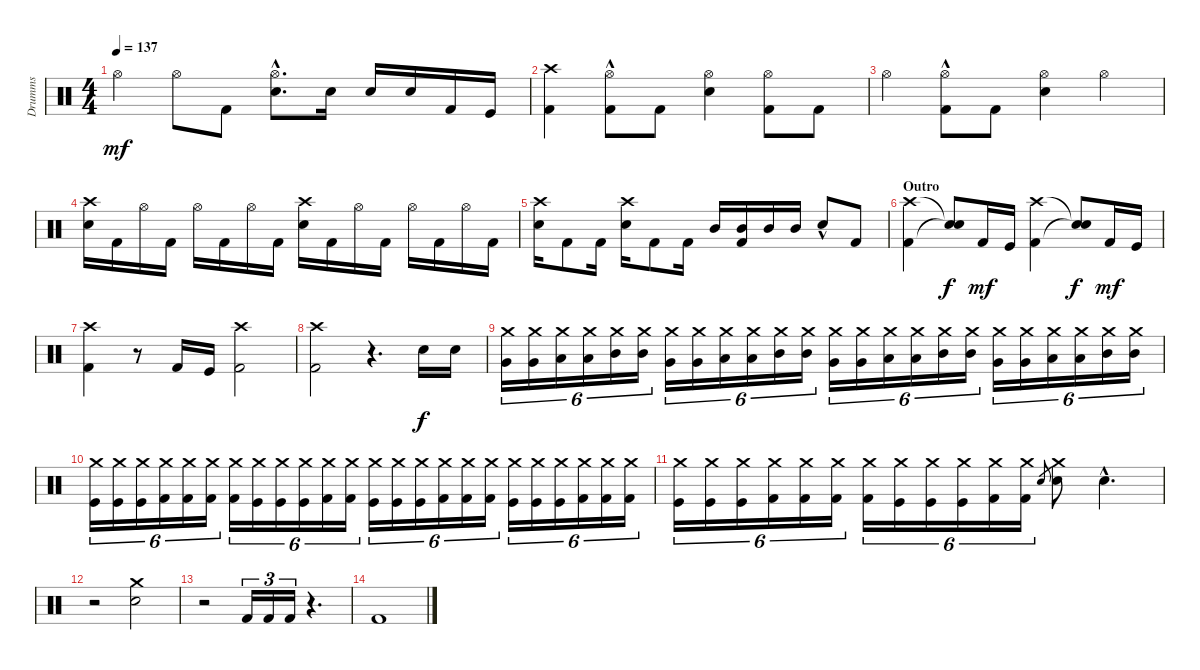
\track ("Drumms" "Drumms") {instrument percussion}
\staff {score}
\articulation defaults
\ts (4 4)
\tempo 137
\clef neutral
\ks c "Hi-Hat (open)".4{dy mf} "Hi-Hat (open)".8 "Kick (hit) 2".8
("Hi-Hat (open)"{hac} "Snare (hit) 2").8{d} "Snare (hit) 2".16 "Snare (hit) 2".16 "Snare (hit) 2".16 "Kick (hit) 2".16 "Kick (hit)".16 |
("Kick (hit) 2" "Crash high (hit)").4 ("Hi-Hat (open)"{hac} "Kick (hit) 2").8 "Kick (hit) 2".8 ("Hi-Hat (open)" "Snare (hit) 2").4 ("Hi-Hat (open)" "Kick (hit) 2").8 "Kick (hit) 2".8 |
"Hi-Hat (open)".4 ("Hi-Hat (open)"{hac} "Kick (hit) 2").8 "Kick (hit) 2".8 ("Snare (hit) 2" "Hi-Hat (open)").4 "Hi-Hat (open)".4 |
("Crash high (hit)" "Snare (hit) 2").16 "Kick (hit) 2".16 "Hi-Hat (open)".16 "Kick (hit) 2".16 "Hi-Hat (open)".16 "Kick (hit) 2".16 "Hi-Hat (open)".16 "Kick (hit) 2".16 ("Crash high (hit)" "Snare (hit) 2").16 "Kick (hit) 2".16 "Hi-Hat (open)".16 "Kick (hit) 2".16 "Hi-Hat (open)".16 "Kick (hit) 2".16 "Hi-Hat (open)".16 "Kick (hit) 2".16 |
("Crash high (hit)" "Snare (hit) 2").16 "Kick (hit) 2".8 "Kick (hit) 2".16 ("Snare (hit) 2" "Crash high (hit)").16 "Kick (hit) 2".8 "Kick (hit) 2".16 "Mid Tom (hit)".16 ("Mid Tom (hit)" "Kick (hit) 2").16 "Mid Tom (hit)".16 "Mid Tom (hit)".16 "Snare (hit) 2"{hac}.8 "Kick (hit) 2".8 |
\section ("" "Outro")
("Crash high (hit)" "Kick (hit) 2").4 ("Snare (hit)"{t} "Snare (hit)"{t}).8{dy f} "Kick (hit) 2".16{dy mf} "Kick (hit)".16 ("Kick (hit) 2" "Crash high (hit)").4 ("Snare (hit)"{t} "Snare (hit)"{t}).8{dy f} "Kick (hit) 2".16{dy mf} "Kick (hit)".16 |
("Crash high (hit)" "Kick (hit) 2").4 r.8 "Kick (hit) 2".16 "Kick (hit)".16 ("Kick (hit) 2" "Crash high (hit)").2 |
("Crash high (hit)" "Kick (hit) 2").2 r.4{d} "Electric Snare (hit)".16{dy f} "Electric Snare (hit)".16 |
("Crash medium (hit)" "Very Low Tom (hit)").16{tu (6 4)} ("Crash medium (hit)" "Very Low Tom (hit)").16{tu (6 4)} ("Crash medium (hit)" "Low Tom (hit)").16{tu (6 4)} ("Crash medium (hit)" "Low Tom (hit)").16{tu (6 4)} ("Crash medium (hit)" "Mid Tom (hit)").16{tu (6 4)} ("Crash medium (hit)" "Mid Tom (hit)").16{tu (6 4)} ("Crash medium (hit)" "Very Low Tom (hit)").16{tu (6 4)} ("Crash medium (hit)" "Very Low Tom (hit)").16{tu (6 4)} ("Crash medium (hit)" "Low Tom (hit)").16{tu (6 4)} ("Crash medium (hit)" "Low Tom (hit)").16{tu (6 4)} ("Crash medium (hit)" "Mid Tom (hit)").16{tu (6 4)} ("Crash medium (hit)" "Mid Tom (hit)").16{tu (6 4)} ("Crash medium (hit)" "Very Low Tom (hit)").16{tu (6 4)} ("Crash medium (hit)" "Very Low Tom (hit)").16{tu (6 4)} ("Crash medium (hit)" "Low Tom (hit)").16{tu (6 4)} ("Crash medium (hit)" "Low Tom (hit)").16{tu (6 4)} ("Crash medium (hit)" "Mid Tom (hit)").16{tu (6 4)} ("Crash medium (hit)" "Mid Tom (hit)").16{tu (6 4)} ("Crash medium (hit)" "Very Low Tom (hit)").16{tu (6 4)} ("Crash medium (hit)" "Very Low Tom (hit)").16{tu (6 4)} ("Crash medium (hit)" "Low Tom (hit)").16{tu (6 4)} ("Crash medium (hit)" "Low Tom (hit)").16{tu (6 4)} ("Crash medium (hit)" "Mid Tom (hit)").16{tu (6 4)} ("Crash medium (hit)" "Mid Tom (hit)").16{tu (6 4)} |
("Crash medium (hit)" "Kick (hit)").16{tu (6 4)} ("Crash medium (hit)" "Kick (hit)").16{tu (6 4)} ("Crash medium (hit)" "Kick (hit)").16{tu (6 4)} ("Crash medium (hit)" "Kick (hit) 2").16{tu (6 4)} ("Crash medium (hit)" "Kick (hit) 2").16{tu (6 4)} ("Crash medium (hit)" "Kick (hit) 2").16{tu (6 4)} ("Crash medium (hit)" "Kick (hit) 2").16{tu (6 4)} ("Crash medium (hit)" "Kick (hit)").16{tu (6 4)} ("Crash medium (hit)" "Kick (hit)").16{tu (6 4)} ("Crash medium (hit)" "Kick (hit)").16{tu (6 4)} ("Crash medium (hit)" "Kick (hit) 2").16{tu (6 4)} ("Crash medium (hit)" "Kick (hit) 2").16{tu (6 4)} ("Crash medium (hit)" "Kick (hit)").16{tu (6 4)} ("Crash medium (hit)" "Kick (hit)").16{tu (6 4)} ("Crash medium (hit)" "Kick (hit)").16{tu (6 4)} ("Crash medium (hit)" "Kick (hit) 2").16{tu (6 4)} ("Crash medium (hit)" "Kick (hit) 2").16{tu (6 4)} ("Crash medium (hit)" "Kick (hit) 2").16{tu (6 4)} ("Crash medium (hit)" "Kick (hit)").16{tu (6 4)} ("Crash medium (hit)" "Kick (hit)").16{tu (6 4)} ("Crash medium (hit)" "Kick (hit)").16{tu (6 4)} ("Crash medium (hit)" "Kick (hit) 2").16{tu (6 4)} ("Crash medium (hit)" "Kick (hit) 2").16{tu (6 4)} ("Crash medium (hit)" "Kick (hit) 2").16{tu (6 4)} |
("Crash medium (hit)" "Kick (hit)").16{tu (6 4)} ("Crash medium (hit)" "Kick (hit)").16{tu (6 4)} ("Crash medium (hit)" "Kick (hit)").16{tu (6 4)} ("Crash medium (hit)" "Kick (hit) 2").16{tu (6 4)} ("Crash medium (hit)" "Kick (hit) 2").16{tu (6 4)} ("Crash medium (hit)" "Kick (hit) 2").16{tu (6 4)} ("Crash medium (hit)" "Kick (hit) 2").16{tu (6 4)} ("Crash medium (hit)" "Kick (hit)").16{tu (6 4)} ("Crash medium (hit)" "Kick (hit)").16{tu (6 4)} ("Crash medium (hit)" "Kick (hit)").16{tu (6 4)} ("Crash medium (hit)" "Kick (hit) 2").16{tu (6 4)} ("Crash medium (hit)" "Kick (hit) 2").16{tu (6 4)} "Snare (hit) 2".8{gr} ("Crash medium (hit)" "Snare (hit) 2").8 "Snare (hit) 2"{hac}.4{d} |
r.2 ("Crash medium (hit)" "Electric Snare (hit)").2 |
r.2 "Kick (hit) 2".16{tu (3 2)} "Kick (hit) 2".16{tu (3 2)} "Kick (hit) 2".16{tu (3 2)} r.4{d} |
"Kick (hit) 2".1
